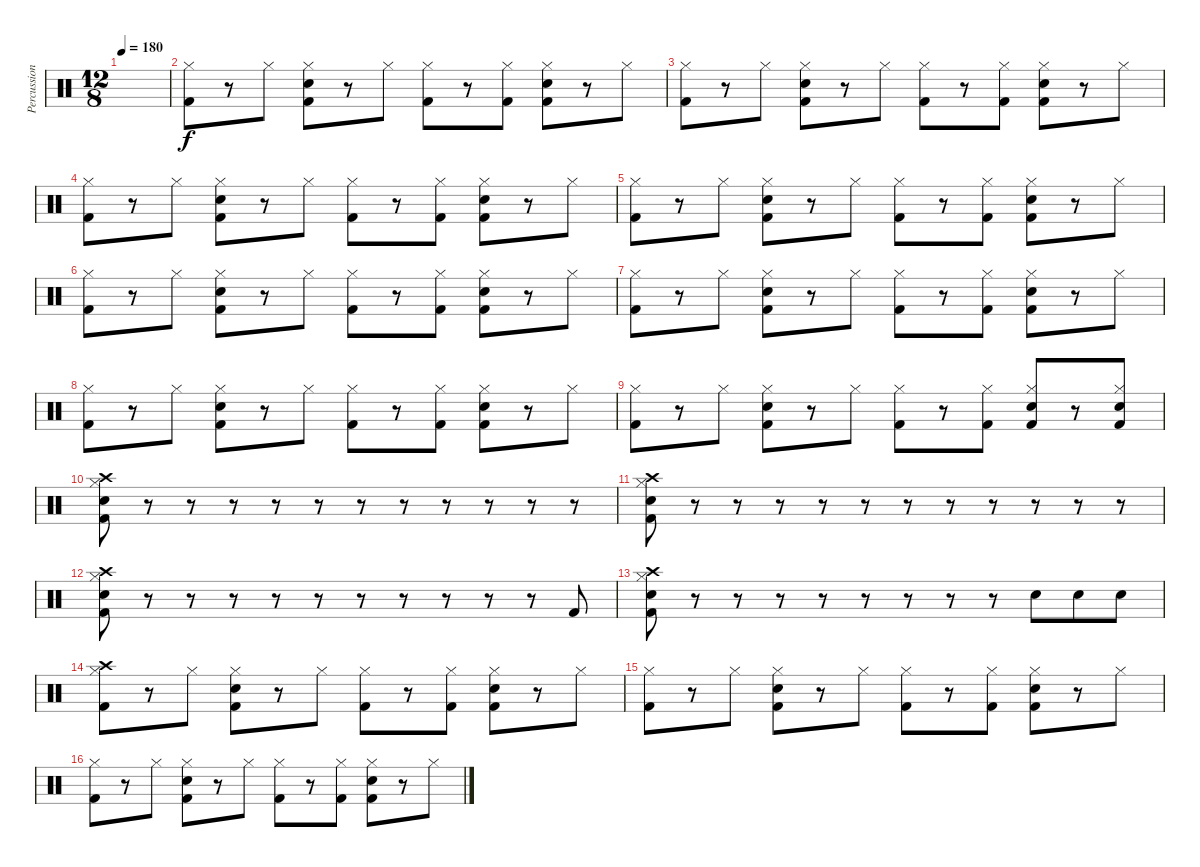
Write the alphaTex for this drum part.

\track ("Percussions" "Percussion") {instrument percussion}
\staff {score}
\articulation defaults
\ts (12 8)
\tempo 180
\clef neutral
\ks c
|
("Kick (hit) 2" "Hi-Hat (closed)").8 r.8 "Hi-Hat (closed)".8 ("Snare (hit) 2" "Kick (hit) 2" "Hi-Hat (closed)").8 r.8 "Hi-Hat (closed)".8 ("Kick (hit) 2" "Hi-Hat (closed)").8 r.8 ("Kick (hit) 2" "Hi-Hat (closed)").8 ("Snare (hit) 2" "Kick (hit) 2" "Hi-Hat (closed)").8 r.8 "Hi-Hat (closed)".8 |
("Kick (hit) 2" "Hi-Hat (closed)").8 r.8 "Hi-Hat (closed)".8 ("Snare (hit) 2" "Kick (hit) 2" "Hi-Hat (closed)").8 r.8 "Hi-Hat (closed)".8 ("Kick (hit) 2" "Hi-Hat (closed)").8 r.8 ("Kick (hit) 2" "Hi-Hat (closed)").8 ("Snare (hit) 2" "Kick (hit) 2" "Hi-Hat (closed)").8 r.8 "Hi-Hat (closed)".8 |
("Kick (hit) 2" "Hi-Hat (closed)").8 r.8 "Hi-Hat (closed)".8 ("Snare (hit) 2" "Kick (hit) 2" "Hi-Hat (closed)").8 r.8 "Hi-Hat (closed)".8 ("Kick (hit) 2" "Hi-Hat (closed)").8 r.8 ("Kick (hit) 2" "Hi-Hat (closed)").8 ("Snare (hit) 2" "Kick (hit) 2" "Hi-Hat (closed)").8 r.8 "Hi-Hat (closed)".8 |
("Kick (hit) 2" "Hi-Hat (closed)").8 r.8 "Hi-Hat (closed)".8 ("Snare (hit) 2" "Kick (hit) 2" "Hi-Hat (closed)").8 r.8 "Hi-Hat (closed)".8 ("Kick (hit) 2" "Hi-Hat (closed)").8 r.8 ("Kick (hit) 2" "Hi-Hat (closed)").8 ("Snare (hit) 2" "Kick (hit) 2" "Hi-Hat (closed)").8 r.8 "Hi-Hat (closed)".8 |
("Kick (hit) 2" "Hi-Hat (closed)").8 r.8 "Hi-Hat (closed)".8 ("Snare (hit) 2" "Kick (hit) 2" "Hi-Hat (closed)").8 r.8 "Hi-Hat (closed)".8 ("Kick (hit) 2" "Hi-Hat (closed)").8 r.8 ("Kick (hit) 2" "Hi-Hat (closed)").8 ("Snare (hit) 2" "Kick (hit) 2" "Hi-Hat (closed)").8 r.8 "Hi-Hat (closed)".8 |
("Kick (hit) 2" "Hi-Hat (closed)").8 r.8 "Hi-Hat (closed)".8 ("Snare (hit) 2" "Kick (hit) 2" "Hi-Hat (closed)").8 r.8 "Hi-Hat (closed)".8 ("Kick (hit) 2" "Hi-Hat (closed)").8 r.8 ("Kick (hit) 2" "Hi-Hat (closed)").8 ("Snare (hit) 2" "Kick (hit) 2" "Hi-Hat (closed)").8 r.8 "Hi-Hat (closed)".8 |
("Kick (hit) 2" "Hi-Hat (closed)").8 r.8 "Hi-Hat (closed)".8 ("Snare (hit) 2" "Kick (hit) 2" "Hi-Hat (closed)").8 r.8 "Hi-Hat (closed)".8 ("Kick (hit) 2" "Hi-Hat (closed)").8 r.8 ("Kick (hit) 2" "Hi-Hat (closed)").8 ("Snare (hit) 2" "Kick (hit) 2" "Hi-Hat (closed)").8 r.8 "Hi-Hat (closed)".8 |
("Kick (hit) 2" "Hi-Hat (closed)").8 r.8 "Hi-Hat (closed)".8 ("Snare (hit) 2" "Kick (hit) 2" "Hi-Hat (closed)").8 r.8 "Hi-Hat (closed)".8 ("Kick (hit) 2" "Hi-Hat (closed)").8 r.8 ("Kick (hit) 2" "Hi-Hat (closed)").8 ("Snare (hit) 2" "Kick (hit) 2" "Hi-Hat (closed)").8 r.8 ("Snare (hit) 2" "Kick (hit) 2" "Hi-Hat (closed)").8 |
("Snare (hit) 2" "Kick (hit) 2" "Hi-Hat (closed)" "Crash high (hit)").8 r.8 r.8 r.8 r.8 r.8 r.8 r.8 r.8 r.8 r.8 r.8 |
("Snare (hit) 2" "Kick (hit) 2" "Hi-Hat (closed)" "Crash high (hit)").8 r.8 r.8 r.8 r.8 r.8 r.8 r.8 r.8 r.8 r.8 r.8 |
("Snare (hit) 2" "Kick (hit) 2" "Hi-Hat (closed)" "Crash high (hit)").8 r.8 r.8 r.8 r.8 r.8 r.8 r.8 r.8 r.8 r.8 "Kick (hit) 2".8 |
("Snare (hit) 2" "Kick (hit) 2" "Hi-Hat (closed)" "Crash high (hit)").8 r.8 r.8 r.8 r.8 r.8 r.8 r.8 r.8 "Snare (hit) 2".8 "Snare (hit) 2".8 "Snare (hit) 2".8 |
("Kick (hit) 2" "Hi-Hat (closed)" "Crash high (hit)").8 r.8 "Hi-Hat (closed)".8 ("Snare (hit) 2" "Kick (hit) 2" "Hi-Hat (closed)").8 r.8 "Hi-Hat (closed)".8 ("Kick (hit) 2" "Hi-Hat (closed)").8 r.8 ("Kick (hit) 2" "Hi-Hat (closed)").8 ("Snare (hit) 2" "Kick (hit) 2" "Hi-Hat (closed)").8 r.8 "Hi-Hat (closed)".8 |
("Kick (hit) 2" "Hi-Hat (closed)").8 r.8 "Hi-Hat (closed)".8 ("Snare (hit) 2" "Kick (hit) 2" "Hi-Hat (closed)").8 r.8 "Hi-Hat (closed)".8 ("Kick (hit) 2" "Hi-Hat (closed)").8 r.8 ("Kick (hit) 2" "Hi-Hat (closed)").8 ("Snare (hit) 2" "Kick (hit) 2" "Hi-Hat (closed)").8 r.8 "Hi-Hat (closed)".8 |
("Kick (hit) 2" "Hi-Hat (closed)").8 r.8 "Hi-Hat (closed)".8 ("Snare (hit) 2" "Kick (hit) 2" "Hi-Hat (closed)").8 r.8 "Hi-Hat (closed)".8 ("Kick (hit) 2" "Hi-Hat (closed)").8 r.8 ("Kick (hit) 2" "Hi-Hat (closed)").8 ("Snare (hit) 2" "Kick (hit) 2" "Hi-Hat (closed)").8 r.8 "Hi-Hat (closed)".8
